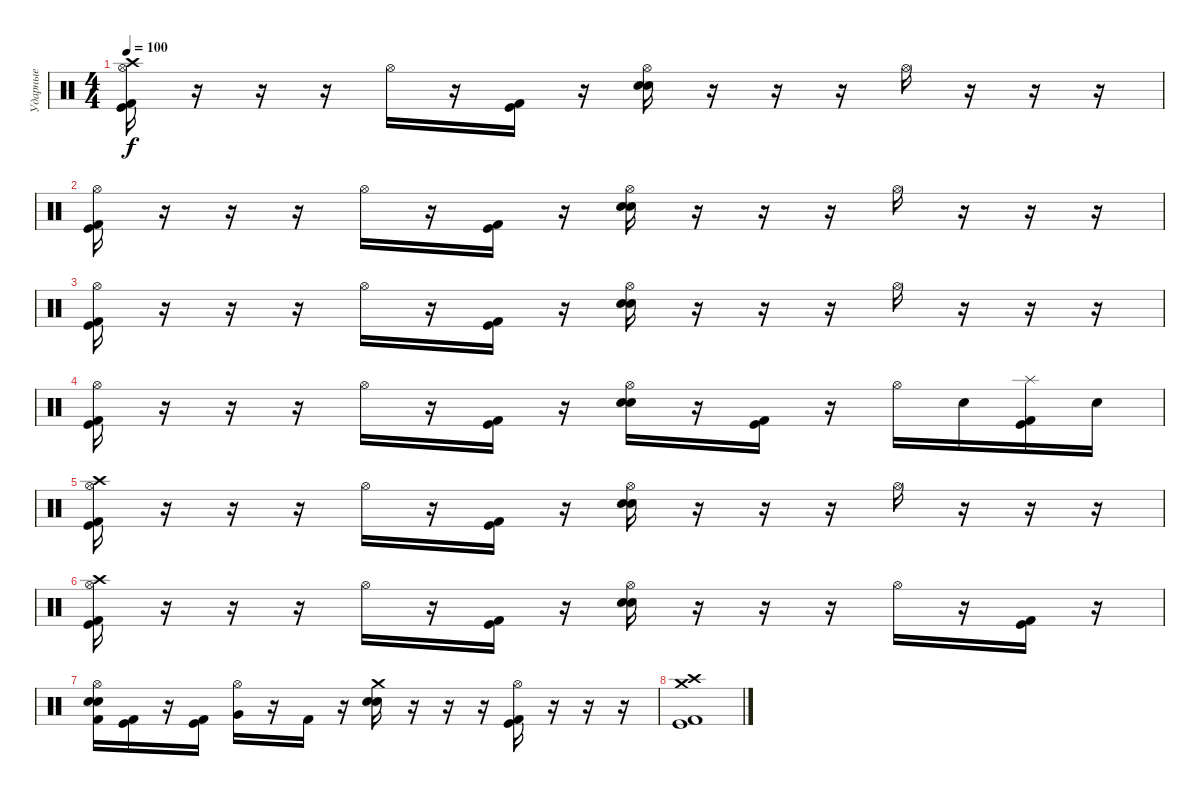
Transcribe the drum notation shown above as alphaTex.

\track ("Ударные" "Ударные") {instrument percussion}
\staff {score}
\articulation defaults
\ts (4 4)
\tempo 100
\clef neutral
\ks c
("Hi-Hat (open)" "Crash high (hit)" "Kick (hit)" "Kick (hit) 2").16{dy f} r.16 r.16 r.16 "Hi-Hat (open)".16 r.16 ("Kick (hit)" "Kick (hit) 2").16 r.16 ("Hi-Hat (open)" "Electric Snare (hit)" "Snare (hit) 2").16 r.16 r.16 r.16 "Hi-Hat (open)".16 r.16 r.16 r.16 |
("Hi-Hat (open)" "Kick (hit)" "Kick (hit) 2").16 r.16 r.16 r.16 "Hi-Hat (open)".16 r.16 ("Kick (hit)" "Kick (hit) 2").16 r.16 ("Hi-Hat (open)" "Snare (hit) 2" "Electric Snare (hit)").16 r.16 r.16 r.16 "Hi-Hat (open)".16 r.16 r.16 r.16 |
("Hi-Hat (open)" "Kick (hit)" "Kick (hit) 2").16 r.16 r.16 r.16 "Hi-Hat (open)".16 r.16 ("Kick (hit)" "Kick (hit) 2").16 r.16 ("Hi-Hat (open)" "Electric Snare (hit)" "Snare (hit) 2").16 r.16 r.16 r.16 "Hi-Hat (open)".16 r.16 r.16 r.16 |
("Hi-Hat (open)" "Kick (hit)" "Kick (hit) 2").16 r.16 r.16 r.16 "Hi-Hat (open)".16 r.16 ("Kick (hit)" "Kick (hit) 2").16 r.16 ("Hi-Hat (open)" "Electric Snare (hit)" "Snare (hit) 2").16 r.16 ("Kick (hit) 2" "Kick (hit)").16 r.16 "Hi-Hat (open)".16 "Electric Snare (hit)".16 ("Splash (hit)" "Kick (hit) 2" "Kick (hit)").16 "Electric Snare (hit)".16 |
("Hi-Hat (open)" "Crash high (hit)" "Kick (hit)" "Kick (hit) 2").16 r.16 r.16 r.16 "Hi-Hat (open)".16 r.16 ("Kick (hit)" "Kick (hit) 2").16 r.16 ("Hi-Hat (open)" "Electric Snare (hit)" "Snare (hit) 2").16 r.16 r.16 r.16 "Hi-Hat (open)".16 r.16 r.16 r.16 |
("Hi-Hat (open)" "Crash high (hit)" "Kick (hit)" "Kick (hit) 2").16 r.16 r.16 r.16 "Hi-Hat (open)".16 r.16 ("Kick (hit)" "Kick (hit) 2").16 r.16 ("Hi-Hat (open)" "Electric Snare (hit)" "Snare (hit) 2").16 r.16 r.16 r.16 "Hi-Hat (open)".16 r.16 ("Kick (hit) 2" "Kick (hit)").16 r.16 |
("Hi-Hat (open)" "Snare (hit) 2" "Electric Snare (hit)" "Kick (hit) 2").16 ("Kick (hit) 2" "Kick (hit)").16 r.16 ("Kick (hit) 2" "Kick (hit)").16 ("Hi-Hat (open)" "Very Low Tom (hit)").16 r.16 "Kick (hit) 2".16 r.16 ("Crash medium (hit)" "Electric Snare (hit)" "Snare (hit) 2").16 r.16 r.16 r.16 ("Hi-Hat (open)" "Kick (hit)" "Kick (hit) 2").16 r.16 r.16 r.16 |
("Crash medium (hit)" "Crash high (hit)" "Kick (hit) 2" "Kick (hit)").1
